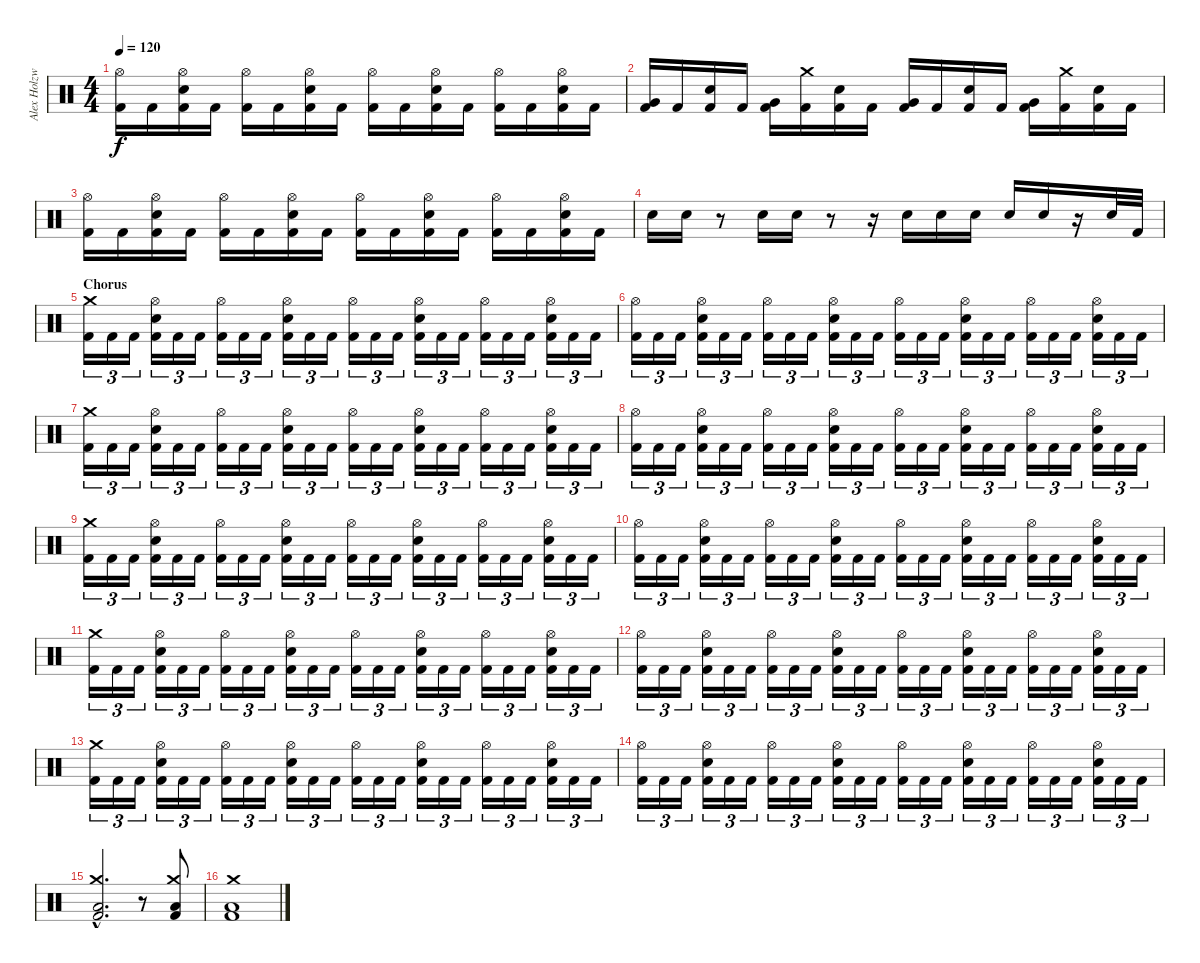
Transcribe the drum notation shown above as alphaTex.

\track ("Alex Holzwarth - Drums" "Alex Holzw") {instrument percussion}
\staff {score}
\articulation defaults
\ts (4 4)
\tempo 120
\clef neutral
\ks c
("Hi-Hat (open)" "Kick (hit) 2").16{dy f} "Kick (hit) 2".16 ("Hi-Hat (open)" "Electric Snare (hit)" "Kick (hit) 2").16 "Kick (hit) 2".16 ("Hi-Hat (open)" "Kick (hit) 2").16 "Kick (hit) 2".16 ("Hi-Hat (open)" "Electric Snare (hit)" "Kick (hit) 2").16 "Kick (hit) 2".16 ("Hi-Hat (open)" "Kick (hit) 2").16 "Kick (hit) 2".16 ("Hi-Hat (open)" "Electric Snare (hit)" "Kick (hit) 2").16 "Kick (hit) 2".16 ("Hi-Hat (open)" "Kick (hit) 2").16 "Kick (hit) 2".16 ("Hi-Hat (open)" "Electric Snare (hit)" "Kick (hit) 2").16 "Kick (hit) 2".16 |
("Very Low Tom (hit)" "Kick (hit) 2").16 "Kick (hit) 2".16 ("Electric Snare (hit)" "Kick (hit) 2").16 "Kick (hit) 2".16 ("Very Low Tom (hit)" "Kick (hit) 2").16 ("Crash medium (hit)" "Kick (hit) 2").16 ("Electric Snare (hit)" "Kick (hit) 2").16 "Kick (hit) 2".16 ("Very Low Tom (hit)" "Kick (hit) 2").16 "Kick (hit) 2".16 ("Electric Snare (hit)" "Kick (hit) 2").16 "Kick (hit) 2".16 ("Very Low Tom (hit)" "Kick (hit) 2").16 ("Crash medium (hit)" "Kick (hit) 2").16 ("Electric Snare (hit)" "Kick (hit) 2").16 "Kick (hit) 2".16 |
("Hi-Hat (open)" "Kick (hit) 2").16 "Kick (hit) 2".16 ("Hi-Hat (open)" "Electric Snare (hit)" "Kick (hit) 2").16 "Kick (hit) 2".16 ("Hi-Hat (open)" "Kick (hit) 2").16 "Kick (hit) 2".16 ("Hi-Hat (open)" "Electric Snare (hit)" "Kick (hit) 2").16 "Kick (hit) 2".16 ("Hi-Hat (open)" "Kick (hit) 2").16 "Kick (hit) 2".16 ("Hi-Hat (open)" "Electric Snare (hit)" "Kick (hit) 2").16 "Kick (hit) 2".16 ("Hi-Hat (open)" "Kick (hit) 2").16 "Kick (hit) 2".16 ("Hi-Hat (open)" "Electric Snare (hit)" "Kick (hit) 2").16 "Kick (hit) 2".16 |
"Electric Snare (hit)".16 "Electric Snare (hit)".16 r.8 "Electric Snare (hit)".16 "Electric Snare (hit)".16 r.8 r.16 "Electric Snare (hit)".16 "Electric Snare (hit)".16 "Electric Snare (hit)".16 "Electric Snare (hit)".16 "Electric Snare (hit)".16 r.16 "Electric Snare (hit)".32 "Kick (hit) 2".32 |
\section ("" "Chorus")
("Crash medium (hit)" "Kick (hit) 2").16{tu (3 2)} "Kick (hit) 2".16{tu (3 2)} "Kick (hit) 2".16{tu (3 2)} ("Hi-Hat (open)" "Electric Snare (hit)" "Kick (hit) 2").16{tu (3 2)} "Kick (hit) 2".16{tu (3 2)} "Kick (hit) 2".16{tu (3 2)} ("Hi-Hat (open)" "Kick (hit) 2").16{tu (3 2)} "Kick (hit) 2".16{tu (3 2)} "Kick (hit) 2".16{tu (3 2)} ("Hi-Hat (open)" "Electric Snare (hit)" "Kick (hit) 2").16{tu (3 2)} "Kick (hit) 2".16{tu (3 2)} "Kick (hit) 2".16{tu (3 2)} ("Hi-Hat (open)" "Kick (hit) 2").16{tu (3 2)} "Kick (hit) 2".16{tu (3 2)} "Kick (hit) 2".16{tu (3 2)} ("Hi-Hat (open)" "Electric Snare (hit)" "Kick (hit) 2").16{tu (3 2)} "Kick (hit) 2".16{tu (3 2)} "Kick (hit) 2".16{tu (3 2)} ("Hi-Hat (open)" "Kick (hit) 2").16{tu (3 2)} "Kick (hit) 2".16{tu (3 2)} "Kick (hit) 2".16{tu (3 2)} ("Hi-Hat (open)" "Electric Snare (hit)" "Kick (hit) 2").16{tu (3 2)} "Kick (hit) 2".16{tu (3 2)} "Kick (hit) 2".16{tu (3 2)} |
("Hi-Hat (open)" "Kick (hit) 2").16{tu (3 2)} "Kick (hit) 2".16{tu (3 2)} "Kick (hit) 2".16{tu (3 2)} ("Hi-Hat (open)" "Electric Snare (hit)" "Kick (hit) 2").16{tu (3 2)} "Kick (hit) 2".16{tu (3 2)} "Kick (hit) 2".16{tu (3 2)} ("Hi-Hat (open)" "Kick (hit) 2").16{tu (3 2)} "Kick (hit) 2".16{tu (3 2)} "Kick (hit) 2".16{tu (3 2)} ("Hi-Hat (open)" "Electric Snare (hit)" "Kick (hit) 2").16{tu (3 2)} "Kick (hit) 2".16{tu (3 2)} "Kick (hit) 2".16{tu (3 2)} ("Hi-Hat (open)" "Kick (hit) 2").16{tu (3 2)} "Kick (hit) 2".16{tu (3 2)} "Kick (hit) 2".16{tu (3 2)} ("Hi-Hat (open)" "Electric Snare (hit)" "Kick (hit) 2").16{tu (3 2)} "Kick (hit) 2".16{tu (3 2)} "Kick (hit) 2".16{tu (3 2)} ("Hi-Hat (open)" "Kick (hit) 2").16{tu (3 2)} "Kick (hit) 2".16{tu (3 2)} "Kick (hit) 2".16{tu (3 2)} ("Hi-Hat (open)" "Electric Snare (hit)" "Kick (hit) 2").16{tu (3 2)} "Kick (hit) 2".16{tu (3 2)} "Kick (hit) 2".16{tu (3 2)} |
("Crash medium (hit)" "Kick (hit) 2").16{tu (3 2)} "Kick (hit) 2".16{tu (3 2)} "Kick (hit) 2".16{tu (3 2)} ("Hi-Hat (open)" "Electric Snare (hit)" "Kick (hit) 2").16{tu (3 2)} "Kick (hit) 2".16{tu (3 2)} "Kick (hit) 2".16{tu (3 2)} ("Hi-Hat (open)" "Kick (hit) 2").16{tu (3 2)} "Kick (hit) 2".16{tu (3 2)} "Kick (hit) 2".16{tu (3 2)} ("Hi-Hat (open)" "Electric Snare (hit)" "Kick (hit) 2").16{tu (3 2)} "Kick (hit) 2".16{tu (3 2)} "Kick (hit) 2".16{tu (3 2)} ("Hi-Hat (open)" "Kick (hit) 2").16{tu (3 2)} "Kick (hit) 2".16{tu (3 2)} "Kick (hit) 2".16{tu (3 2)} ("Hi-Hat (open)" "Electric Snare (hit)" "Kick (hit) 2").16{tu (3 2)} "Kick (hit) 2".16{tu (3 2)} "Kick (hit) 2".16{tu (3 2)} ("Hi-Hat (open)" "Kick (hit) 2").16{tu (3 2)} "Kick (hit) 2".16{tu (3 2)} "Kick (hit) 2".16{tu (3 2)} ("Hi-Hat (open)" "Electric Snare (hit)" "Kick (hit) 2").16{tu (3 2)} "Kick (hit) 2".16{tu (3 2)} "Kick (hit) 2".16{tu (3 2)} |
("Hi-Hat (open)" "Kick (hit) 2").16{tu (3 2)} "Kick (hit) 2".16{tu (3 2)} "Kick (hit) 2".16{tu (3 2)} ("Hi-Hat (open)" "Electric Snare (hit)" "Kick (hit) 2").16{tu (3 2)} "Kick (hit) 2".16{tu (3 2)} "Kick (hit) 2".16{tu (3 2)} ("Hi-Hat (open)" "Kick (hit) 2").16{tu (3 2)} "Kick (hit) 2".16{tu (3 2)} "Kick (hit) 2".16{tu (3 2)} ("Hi-Hat (open)" "Electric Snare (hit)" "Kick (hit) 2").16{tu (3 2)} "Kick (hit) 2".16{tu (3 2)} "Kick (hit) 2".16{tu (3 2)} ("Hi-Hat (open)" "Kick (hit) 2").16{tu (3 2)} "Kick (hit) 2".16{tu (3 2)} "Kick (hit) 2".16{tu (3 2)} ("Hi-Hat (open)" "Electric Snare (hit)" "Kick (hit) 2").16{tu (3 2)} "Kick (hit) 2".16{tu (3 2)} "Kick (hit) 2".16{tu (3 2)} ("Hi-Hat (open)" "Kick (hit) 2").16{tu (3 2)} "Kick (hit) 2".16{tu (3 2)} "Kick (hit) 2".16{tu (3 2)} ("Hi-Hat (open)" "Electric Snare (hit)" "Kick (hit) 2").16{tu (3 2)} "Kick (hit) 2".16{tu (3 2)} "Kick (hit) 2".16{tu (3 2)} |
("Crash medium (hit)" "Kick (hit) 2").16{tu (3 2)} "Kick (hit) 2".16{tu (3 2)} "Kick (hit) 2".16{tu (3 2)} ("Hi-Hat (open)" "Electric Snare (hit)" "Kick (hit) 2").16{tu (3 2)} "Kick (hit) 2".16{tu (3 2)} "Kick (hit) 2".16{tu (3 2)} ("Hi-Hat (open)" "Kick (hit) 2").16{tu (3 2)} "Kick (hit) 2".16{tu (3 2)} "Kick (hit) 2".16{tu (3 2)} ("Hi-Hat (open)" "Electric Snare (hit)" "Kick (hit) 2").16{tu (3 2)} "Kick (hit) 2".16{tu (3 2)} "Kick (hit) 2".16{tu (3 2)} ("Hi-Hat (open)" "Kick (hit) 2").16{tu (3 2)} "Kick (hit) 2".16{tu (3 2)} "Kick (hit) 2".16{tu (3 2)} ("Hi-Hat (open)" "Electric Snare (hit)" "Kick (hit) 2").16{tu (3 2)} "Kick (hit) 2".16{tu (3 2)} "Kick (hit) 2".16{tu (3 2)} ("Hi-Hat (open)" "Kick (hit) 2").16{tu (3 2)} "Kick (hit) 2".16{tu (3 2)} "Kick (hit) 2".16{tu (3 2)} ("Hi-Hat (open)" "Electric Snare (hit)" "Kick (hit) 2").16{tu (3 2)} "Kick (hit) 2".16{tu (3 2)} "Kick (hit) 2".16{tu (3 2)} |
("Hi-Hat (open)" "Kick (hit) 2").16{tu (3 2)} "Kick (hit) 2".16{tu (3 2)} "Kick (hit) 2".16{tu (3 2)} ("Hi-Hat (open)" "Electric Snare (hit)" "Kick (hit) 2").16{tu (3 2)} "Kick (hit) 2".16{tu (3 2)} "Kick (hit) 2".16{tu (3 2)} ("Hi-Hat (open)" "Kick (hit) 2").16{tu (3 2)} "Kick (hit) 2".16{tu (3 2)} "Kick (hit) 2".16{tu (3 2)} ("Hi-Hat (open)" "Electric Snare (hit)" "Kick (hit) 2").16{tu (3 2)} "Kick (hit) 2".16{tu (3 2)} "Kick (hit) 2".16{tu (3 2)} ("Hi-Hat (open)" "Kick (hit) 2").16{tu (3 2)} "Kick (hit) 2".16{tu (3 2)} "Kick (hit) 2".16{tu (3 2)} ("Hi-Hat (open)" "Electric Snare (hit)" "Kick (hit) 2").16{tu (3 2)} "Kick (hit) 2".16{tu (3 2)} "Kick (hit) 2".16{tu (3 2)} ("Hi-Hat (open)" "Kick (hit) 2").16{tu (3 2)} "Kick (hit) 2".16{tu (3 2)} "Kick (hit) 2".16{tu (3 2)} ("Hi-Hat (open)" "Electric Snare (hit)" "Kick (hit) 2").16{tu (3 2)} "Kick (hit) 2".16{tu (3 2)} "Kick (hit) 2".16{tu (3 2)} |
("Crash medium (hit)" "Kick (hit) 2").16{tu (3 2)} "Kick (hit) 2".16{tu (3 2)} "Kick (hit) 2".16{tu (3 2)} ("Hi-Hat (open)" "Electric Snare (hit)" "Kick (hit) 2").16{tu (3 2)} "Kick (hit) 2".16{tu (3 2)} "Kick (hit) 2".16{tu (3 2)} ("Hi-Hat (open)" "Kick (hit) 2").16{tu (3 2)} "Kick (hit) 2".16{tu (3 2)} "Kick (hit) 2".16{tu (3 2)} ("Hi-Hat (open)" "Electric Snare (hit)" "Kick (hit) 2").16{tu (3 2)} "Kick (hit) 2".16{tu (3 2)} "Kick (hit) 2".16{tu (3 2)} ("Hi-Hat (open)" "Kick (hit) 2").16{tu (3 2)} "Kick (hit) 2".16{tu (3 2)} "Kick (hit) 2".16{tu (3 2)} ("Hi-Hat (open)" "Electric Snare (hit)" "Kick (hit) 2").16{tu (3 2)} "Kick (hit) 2".16{tu (3 2)} "Kick (hit) 2".16{tu (3 2)} ("Hi-Hat (open)" "Kick (hit) 2").16{tu (3 2)} "Kick (hit) 2".16{tu (3 2)} "Kick (hit) 2".16{tu (3 2)} ("Hi-Hat (open)" "Electric Snare (hit)" "Kick (hit) 2").16{tu (3 2)} "Kick (hit) 2".16{tu (3 2)} "Kick (hit) 2".16{tu (3 2)} |
("Hi-Hat (open)" "Kick (hit) 2").16{tu (3 2)} "Kick (hit) 2".16{tu (3 2)} "Kick (hit) 2".16{tu (3 2)} ("Hi-Hat (open)" "Electric Snare (hit)" "Kick (hit) 2").16{tu (3 2)} "Kick (hit) 2".16{tu (3 2)} "Kick (hit) 2".16{tu (3 2)} ("Hi-Hat (open)" "Kick (hit) 2").16{tu (3 2)} "Kick (hit) 2".16{tu (3 2)} "Kick (hit) 2".16{tu (3 2)} ("Hi-Hat (open)" "Electric Snare (hit)" "Kick (hit) 2").16{tu (3 2)} "Kick (hit) 2".16{tu (3 2)} "Kick (hit) 2".16{tu (3 2)} ("Hi-Hat (open)" "Kick (hit) 2").16{tu (3 2)} "Kick (hit) 2".16{tu (3 2)} "Kick (hit) 2".16{tu (3 2)} ("Hi-Hat (open)" "Electric Snare (hit)" "Kick (hit) 2").16{tu (3 2)} "Kick (hit) 2".16{tu (3 2)} "Kick (hit) 2".16{tu (3 2)} ("Hi-Hat (open)" "Kick (hit) 2").16{tu (3 2)} "Kick (hit) 2".16{tu (3 2)} "Kick (hit) 2".16{tu (3 2)} ("Hi-Hat (open)" "Electric Snare (hit)" "Kick (hit) 2").16{tu (3 2)} "Kick (hit) 2".16{tu (3 2)} "Kick (hit) 2".16{tu (3 2)} |
("Crash medium (hit)" "Kick (hit) 2").16{tu (3 2)} "Kick (hit) 2".16{tu (3 2)} "Kick (hit) 2".16{tu (3 2)} ("Hi-Hat (open)" "Electric Snare (hit)" "Kick (hit) 2").16{tu (3 2)} "Kick (hit) 2".16{tu (3 2)} "Kick (hit) 2".16{tu (3 2)} ("Hi-Hat (open)" "Kick (hit) 2").16{tu (3 2)} "Kick (hit) 2".16{tu (3 2)} "Kick (hit) 2".16{tu (3 2)} ("Hi-Hat (open)" "Electric Snare (hit)" "Kick (hit) 2").16{tu (3 2)} "Kick (hit) 2".16{tu (3 2)} "Kick (hit) 2".16{tu (3 2)} ("Hi-Hat (open)" "Kick (hit) 2").16{tu (3 2)} "Kick (hit) 2".16{tu (3 2)} "Kick (hit) 2".16{tu (3 2)} ("Hi-Hat (open)" "Electric Snare (hit)" "Kick (hit) 2").16{tu (3 2)} "Kick (hit) 2".16{tu (3 2)} "Kick (hit) 2".16{tu (3 2)} ("Hi-Hat (open)" "Kick (hit) 2").16{tu (3 2)} "Kick (hit) 2".16{tu (3 2)} "Kick (hit) 2".16{tu (3 2)} ("Hi-Hat (open)" "Electric Snare (hit)" "Kick (hit) 2").16{tu (3 2)} "Kick (hit) 2".16{tu (3 2)} "Kick (hit) 2".16{tu (3 2)} |
("Hi-Hat (open)" "Kick (hit) 2").16{tu (3 2)} "Kick (hit) 2".16{tu (3 2)} "Kick (hit) 2".16{tu (3 2)} ("Hi-Hat (open)" "Electric Snare (hit)" "Kick (hit) 2").16{tu (3 2)} "Kick (hit) 2".16{tu (3 2)} "Kick (hit) 2".16{tu (3 2)} ("Hi-Hat (open)" "Kick (hit) 2").16{tu (3 2)} "Kick (hit) 2".16{tu (3 2)} "Kick (hit) 2".16{tu (3 2)} ("Hi-Hat (open)" "Electric Snare (hit)" "Kick (hit) 2").16{tu (3 2)} "Kick (hit) 2".16{tu (3 2)} "Kick (hit) 2".16{tu (3 2)} ("Hi-Hat (open)" "Kick (hit) 2").16{tu (3 2)} "Kick (hit) 2".16{tu (3 2)} "Kick (hit) 2".16{tu (3 2)} ("Hi-Hat (open)" "Electric Snare (hit)" "Kick (hit) 2").16{tu (3 2)} "Kick (hit) 2".16{tu (3 2)} "Kick (hit) 2".16{tu (3 2)} ("Hi-Hat (open)" "Kick (hit) 2").16{tu (3 2)} "Kick (hit) 2".16{tu (3 2)} "Kick (hit) 2".16{tu (3 2)} ("Hi-Hat (open)" "Electric Snare (hit)" "Kick (hit) 2").16{tu (3 2)} "Kick (hit) 2".16{tu (3 2)} "Kick (hit) 2".16{tu (3 2)} |
("Crash medium (hit)"{hac} "Low Floor Tom (hit)"{hac} "Kick (hit) 2"{hac}).2{d} r.8 ("Crash medium (hit)" "Low Floor Tom (hit)" "Kick (hit) 2").8 |
("Crash medium (hit)" "Low Floor Tom (hit)" "Kick (hit) 2").1
